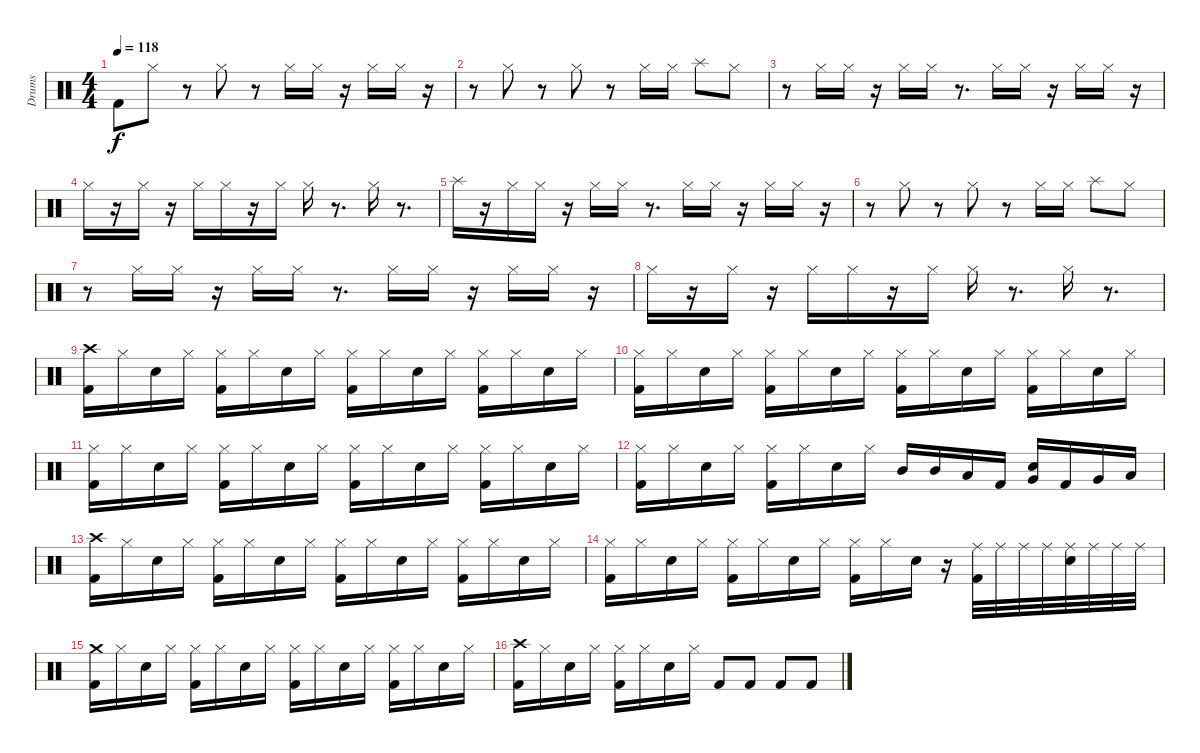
\track ("Drums" "Drums") {instrument percussion}
\staff
\articulation defaults
\ts (4 4)
\tempo 118
\clef neutral
\ks c "Kick (hit) 2".8{dy f} "Hi-Hat (closed)".8
r.8 "Hi-Hat (closed)".8 r.8 "Hi-Hat (closed)".16 "Hi-Hat (closed)".16 r.16 "Hi-Hat (closed)".16 "Hi-Hat (closed)".16 r.16 |
r.8 "Hi-Hat (closed)".8 r.8 "Hi-Hat (closed)".8 r.8 "Hi-Hat (closed)".16 "Hi-Hat (closed)".16 "Splash (hit)".8 "Hi-Hat (closed)".8 |
r.8 "Hi-Hat (closed)".16 "Hi-Hat (closed)".16 r.16 "Hi-Hat (closed)".16 "Hi-Hat (closed)".16 r.8{d} "Hi-Hat (closed)".16 "Hi-Hat (closed)".16 r.16 "Hi-Hat (closed)".16 "Hi-Hat (closed)".16 r.16 |
"Hi-Hat (closed)".16 r.16 "Hi-Hat (closed)".16 r.16 "Hi-Hat (closed)".16 "Hi-Hat (closed)".16 r.16 "Hi-Hat (closed)".16 "Hi-Hat (closed)".16 r.8{d} "Hi-Hat (closed)".16 r.8{d} |
"Splash (hit)".16 r.16 "Hi-Hat (closed)".16 "Hi-Hat (closed)".16 r.16 "Hi-Hat (closed)".16 "Hi-Hat (closed)".16 r.8{d} "Hi-Hat (closed)".16 "Hi-Hat (closed)".16 r.16 "Hi-Hat (closed)".16 "Hi-Hat (closed)".16 r.16 |
r.8 "Hi-Hat (closed)".8 r.8 "Hi-Hat (closed)".8 r.8 "Hi-Hat (closed)".16 "Hi-Hat (closed)".16 "Splash (hit)".8 "Hi-Hat (closed)".8 |
r.8 "Hi-Hat (closed)".16 "Hi-Hat (closed)".16 r.16 "Hi-Hat (closed)".16 "Hi-Hat (closed)".16 r.8{d} "Hi-Hat (closed)".16 "Hi-Hat (closed)".16 r.16 "Hi-Hat (closed)".16 "Hi-Hat (closed)".16 r.16 |
"Hi-Hat (closed)".16 r.16 "Hi-Hat (closed)".16 r.16 "Hi-Hat (closed)".16 "Hi-Hat (closed)".16 r.16 "Hi-Hat (closed)".16 "Hi-Hat (closed)".16 r.8{d} "Hi-Hat (closed)".16 r.8{d} |
("Crash high (hit)" "Kick (hit) 2").16 "Hi-Hat (closed)".16 "Snare (hit) 2".16 "Hi-Hat (closed)".16 ("Hi-Hat (closed)" "Kick (hit) 2").16 "Hi-Hat (closed)".16 "Snare (hit) 2".16 "Hi-Hat (closed)".16 ("Hi-Hat (closed)" "Kick (hit) 2").16 "Hi-Hat (closed)".16 "Snare (hit) 2".16 "Hi-Hat (closed)".16 ("Hi-Hat (closed)" "Kick (hit) 2").16 "Hi-Hat (closed)".16 "Snare (hit) 2".16 "Hi-Hat (closed)".16 |
("Hi-Hat (closed)" "Kick (hit) 2").16 "Hi-Hat (closed)".16 "Snare (hit) 2".16 "Hi-Hat (closed)".16 ("Hi-Hat (closed)" "Kick (hit) 2").16 "Hi-Hat (closed)".16 "Snare (hit) 2".16 "Hi-Hat (closed)".16 ("Hi-Hat (closed)" "Kick (hit) 2").16 "Hi-Hat (closed)".16 "Snare (hit) 2".16 "Hi-Hat (closed)".16 ("Hi-Hat (closed)" "Kick (hit) 2").16 "Hi-Hat (closed)".16 "Snare (hit) 2".16 "Hi-Hat (closed)".16 |
("Hi-Hat (closed)" "Kick (hit) 2").16 "Hi-Hat (closed)".16 "Snare (hit) 2".16 "Hi-Hat (closed)".16 ("Hi-Hat (closed)" "Kick (hit) 2").16 "Hi-Hat (closed)".16 "Snare (hit) 2".16 "Hi-Hat (closed)".16 ("Hi-Hat (closed)" "Kick (hit) 2").16 "Hi-Hat (closed)".16 "Snare (hit) 2".16 "Hi-Hat (closed)".16 ("Hi-Hat (closed)" "Kick (hit) 2").16 "Hi-Hat (closed)".16 "Snare (hit) 2".16 "Hi-Hat (closed)".16 |
("Hi-Hat (closed)" "Kick (hit) 2").16 "Hi-Hat (closed)".16 "Snare (hit) 2".16 "Hi-Hat (closed)".16 ("Hi-Hat (closed)" "Kick (hit) 2").16 "Hi-Hat (closed)".16 "Snare (hit) 2".16 "Hi-Hat (closed)".16 "Mid Tom (hit)".16 "Mid Tom (hit)".16 "Low Tom (hit)".16 "Kick (hit) 2".16 ("Snare (hit) 2" "Very Low Tom (hit)").16 "Kick (hit) 2".16 "Very Low Tom (hit)".16 "Low Tom (hit)".16 |
("Crash high (hit)" "Kick (hit) 2").16 "Hi-Hat (closed)".16 "Snare (hit) 2".16 "Hi-Hat (closed)".16 ("Hi-Hat (closed)" "Kick (hit) 2").16 "Hi-Hat (closed)".16 "Snare (hit) 2".16 "Hi-Hat (closed)".16 ("Hi-Hat (closed)" "Kick (hit) 2").16 "Hi-Hat (closed)".16 "Snare (hit) 2".16 "Hi-Hat (closed)".16 ("Hi-Hat (closed)" "Kick (hit) 2").16 "Hi-Hat (closed)".16 "Snare (hit) 2".16 "Hi-Hat (closed)".16 |
("Hi-Hat (closed)" "Kick (hit) 2").16 "Hi-Hat (closed)".16 "Snare (hit) 2".16 "Hi-Hat (closed)".16 ("Hi-Hat (closed)" "Kick (hit) 2").16 "Hi-Hat (closed)".16 "Snare (hit) 2".16 "Hi-Hat (closed)".16 ("Hi-Hat (closed)" "Kick (hit) 2").16 "Hi-Hat (closed)".16 "Snare (hit) 2".16 r.16 ("Ride (middle)" "Kick (hit) 2").32 "Ride (middle)".32 "Ride (middle)".32 "Ride (middle)".32 ("Ride (middle)" "Snare (hit) 2").32 "Ride (middle)".32 "Ride (middle)".32 "Ride (middle)".32 |
("Crash medium (hit)" "Kick (hit) 2").16 "Hi-Hat (closed)".16 "Snare (hit) 2".16 "Hi-Hat (closed)".16 ("Hi-Hat (closed)" "Kick (hit) 2").16 "Hi-Hat (closed)".16 "Snare (hit) 2".16 "Hi-Hat (closed)".16 ("Hi-Hat (closed)" "Kick (hit) 2").16 "Hi-Hat (closed)".16 "Snare (hit) 2".16 "Hi-Hat (closed)".16 ("Hi-Hat (closed)" "Kick (hit) 2").16 "Hi-Hat (closed)".16 "Snare (hit) 2".16 "Hi-Hat (closed)".16 |
("Crash high (hit)" "Kick (hit) 2").16 "Hi-Hat (closed)".16 "Snare (hit) 2".16 "Hi-Hat (closed)".16 ("Hi-Hat (closed)" "Kick (hit) 2").16 "Hi-Hat (closed)".16 "Snare (hit) 2".16 "Hi-Hat (closed)".16 "Kick (hit) 2".8 "Kick (hit) 2".8 "Kick (hit) 2".8 "Kick (hit) 2".8
